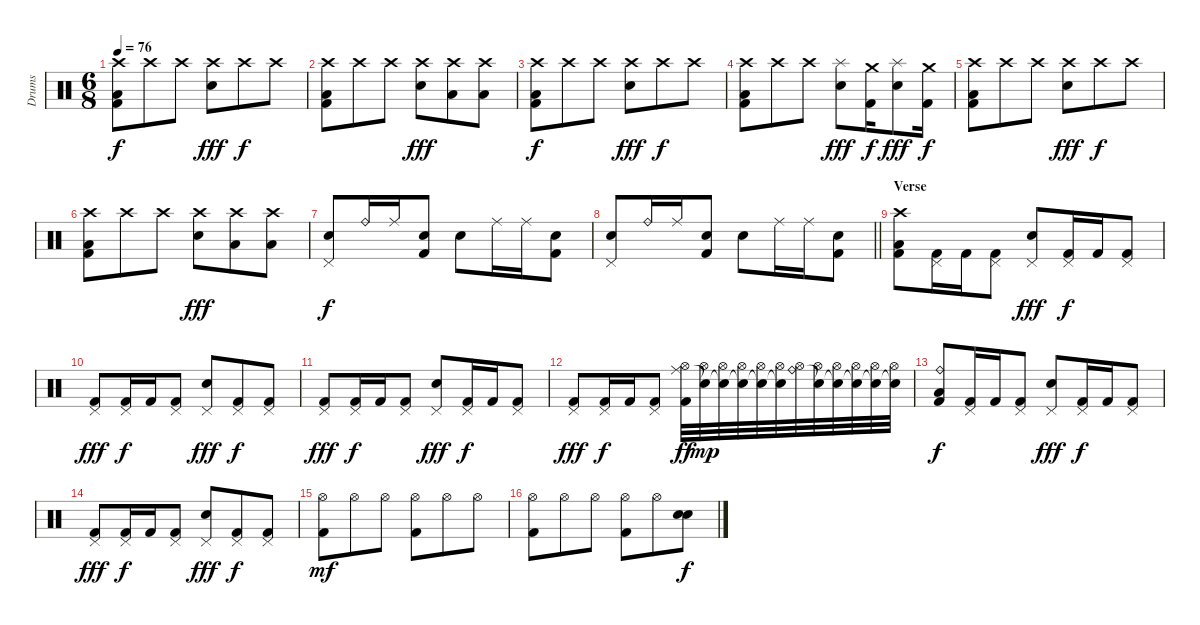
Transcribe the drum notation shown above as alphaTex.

\track ("Drums" "Drums") {instrument percussion}
\staff {score}
\articulation defaults
\ts (6 8)
\tempo 76
\clef neutral
\ks c
("Crash high (hit)" "Low Floor Tom (hit)" "Kick (hit) 2").8{dy f} "Crash high (hit)".8 "Crash high (hit)".8 ("Crash high (hit)" "Snare (hit) 2").8{dy fff} "Crash high (hit)".8{dy f} "Crash high (hit)".8 |
("Crash high (hit)" "Low Floor Tom (hit)" "Kick (hit) 2").8 "Crash high (hit)".8 "Crash high (hit)".8 ("Crash high (hit)" "Snare (hit) 2").8{dy fff} ("Crash high (hit)" "Low Tom (hit)").8 ("Crash high (hit)" "Low Tom (hit)").8 |
("Crash high (hit)" "Low Floor Tom (hit)" "Kick (hit) 2").8{dy f} "Crash high (hit)".8 "Crash high (hit)".8 ("Crash high (hit)" "Snare (hit) 2").8{dy fff} "Crash high (hit)".8{dy f} "Crash high (hit)".8 |
("Crash high (hit)" "Low Floor Tom (hit)" "Kick (hit) 2").8 "Crash high (hit)".8 "Crash high (hit)".8 ("Splash (hit)" "Snare (hit) 2").8{dy fff} ("Crash medium (hit)" "Kick (hit) 2").16{dy f} ("Splash (hit)" "Snare (hit) 2").8{dy fff} ("Crash medium (hit)" "Kick (hit) 2").16{dy f} |
("Crash high (hit)" "Low Floor Tom (hit)" "Kick (hit) 2").8 "Crash high (hit)".8 "Crash high (hit)".8 ("Crash high (hit)" "Snare (hit) 2").8{dy fff} "Crash high (hit)".8{dy f} "Crash high (hit)".8 |
("Crash high (hit)" "Low Floor Tom (hit)" "Kick (hit) 2").8 "Crash high (hit)".8 "Crash high (hit)".8 ("Crash high (hit)" "Snare (hit) 2").8{dy fff} ("Crash high (hit)" "Low Tom (hit)").8 ("Crash high (hit)" "Low Tom (hit)").8 |
("Pedal Hi-Hat (hit)" "Snare (hit) 2").8{dy f} "Ride (bell)".16 "Ride (middle)".16 ("Snare (hit) 2" "Kick (hit) 2").8 "Snare (hit) 2".8 "Ride (middle)".16 "Ride (middle)".16 ("Snare (hit) 2" "Kick (hit) 2").8 |
\barLineRight lightlight
("Pedal Hi-Hat (hit)" "Snare (hit) 2").8 "Ride (bell)".16 "Ride (middle)".16 ("Snare (hit) 2" "Kick (hit) 2").8 "Snare (hit) 2".8 "Ride (middle)".16 "Ride (middle)".16 ("Snare (hit) 2" "Kick (hit) 2").8 |
\section ("" "Verse")
("Crash high (hit)" "Low Floor Tom (hit)" "Kick (hit) 2").8 ("Pedal Hi-Hat (hit)" "Kick (hit) 2").16 "Kick (hit) 2".16 ("Pedal Hi-Hat (hit)" "Kick (hit) 2").8 ("Pedal Hi-Hat (hit)" "Snare (hit) 2").8{dy fff} ("Pedal Hi-Hat (hit)" "Kick (hit) 2").16{dy f} "Kick (hit) 2".16 ("Pedal Hi-Hat (hit)" "Kick (hit) 2").8 |
("Pedal Hi-Hat (hit)" "Kick (hit) 2").8{dy fff} ("Pedal Hi-Hat (hit)" "Kick (hit) 2").16{dy f} "Kick (hit) 2".16 ("Pedal Hi-Hat (hit)" "Kick (hit) 2").8 ("Pedal Hi-Hat (hit)" "Snare (hit) 2").8{dy fff} ("Pedal Hi-Hat (hit)" "Kick (hit) 2").8{dy f} ("Pedal Hi-Hat (hit)" "Kick (hit) 2").8 |
("Pedal Hi-Hat (hit)" "Kick (hit) 2").8{dy fff} ("Pedal Hi-Hat (hit)" "Kick (hit) 2").16{dy f} "Kick (hit) 2".16 ("Pedal Hi-Hat (hit)" "Kick (hit) 2").8 ("Pedal Hi-Hat (hit)" "Snare (hit) 2").8{dy fff} ("Pedal Hi-Hat (hit)" "Kick (hit) 2").16{dy f} "Kick (hit) 2".16 ("Pedal Hi-Hat (hit)" "Kick (hit) 2").8 |
("Pedal Hi-Hat (hit)" "Kick (hit) 2").8{dy fff} ("Pedal Hi-Hat (hit)" "Kick (hit) 2").16{dy f} "Kick (hit) 2".16 ("Pedal Hi-Hat (hit)" "Kick (hit) 2").8 ("Hi-Hat (open)" "Ride (middle)" "Kick (hit) 2").32{dy ff} ("Hi-Hat (open)" "Snare (hit)"{t}).32{dy mp} ("Hi-Hat (open)" "Snare (hit)"{t}).32 ("Hi-Hat (open)" "Snare (hit)"{t}).32 ("Hi-Hat (open)" "Snare (hit)"{t}).32 ("Hi-Hat (open)" "Snare (hit)"{t}).32 ("Hi-Hat (open)" "Ride (bell)").32 ("Hi-Hat (open)" "Snare (hit)"{t}).32 ("Hi-Hat (open)" "Snare (hit)"{t}).32 ("Hi-Hat (open)" "Snare (hit)"{t}).32 ("Hi-Hat (open)" "Snare (hit)"{t}).32 ("Hi-Hat (open)" "Snare (hit)"{t}).32 |
("Ride (bell)" "Low Floor Tom (hit)" "Kick (hit) 2").8{dy f} ("Pedal Hi-Hat (hit)" "Kick (hit) 2").16 "Kick (hit) 2".16 ("Pedal Hi-Hat (hit)" "Kick (hit) 2").8 ("Pedal Hi-Hat (hit)" "Snare (hit) 2").8{dy fff} ("Pedal Hi-Hat (hit)" "Kick (hit) 2").16{dy f} "Kick (hit) 2".16 ("Pedal Hi-Hat (hit)" "Kick (hit) 2").8 |
("Pedal Hi-Hat (hit)" "Kick (hit) 2").8{dy fff} ("Pedal Hi-Hat (hit)" "Kick (hit) 2").16{dy f} "Kick (hit) 2".16 ("Pedal Hi-Hat (hit)" "Kick (hit) 2").8 ("Pedal Hi-Hat (hit)" "Snare (hit) 2").8{dy fff} ("Pedal Hi-Hat (hit)" "Kick (hit) 2").8{dy f} ("Pedal Hi-Hat (hit)" "Kick (hit) 2").8 |
("Hi-Hat (open)" "Kick (hit) 2").8{dy mf} "Hi-Hat (open)".8 "Hi-Hat (open)".8 ("Hi-Hat (open)" "Kick (hit) 2").8 "Hi-Hat (open)".8 "Hi-Hat (open)".8 |
("Hi-Hat (open)" "Kick (hit) 2").8 "Hi-Hat (open)".8 "Hi-Hat (open)".8 ("Hi-Hat (open)" "Kick (hit) 2").8 "Hi-Hat (open)".8 ("Snare (hit) 2" "Snare (hit) 2").8{dy f}
